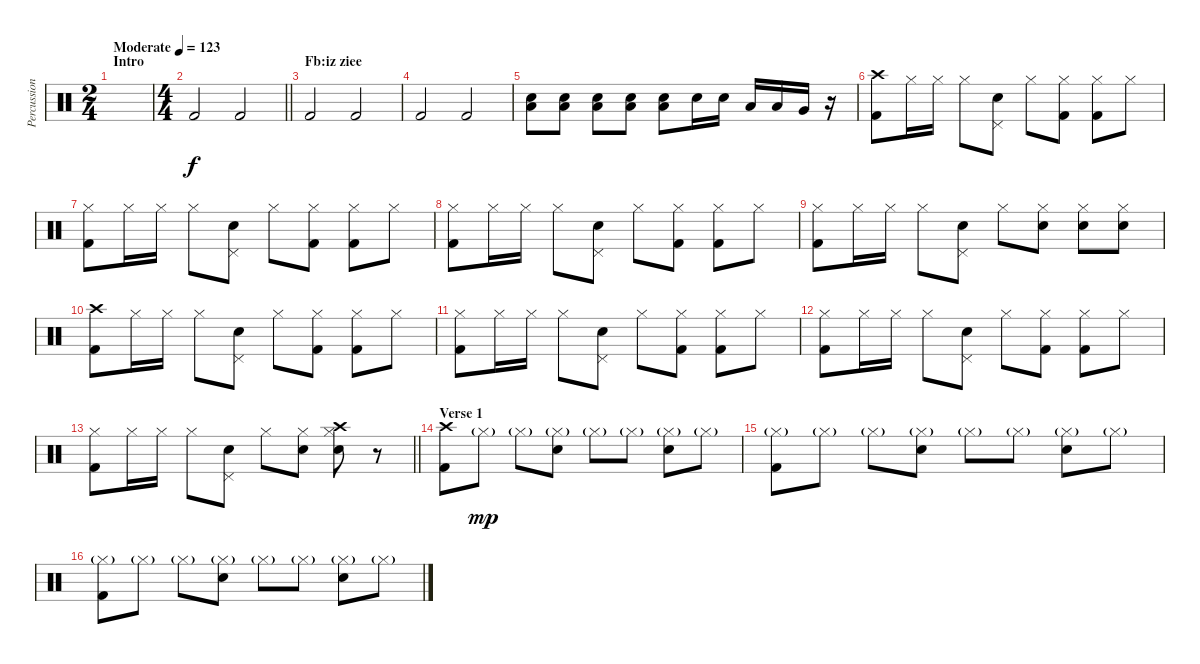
\track ("Percussion 1" "Percussion") {instrument percussion}
\staff {score}
\articulation defaults
\ts (2 4)
\section ("" "Intro")
\tempo (123 "Moderate")
\clef neutral
\ks c
|
\ts (4 4)
\barLineRight lightlight "Kick (hit) 2".2 "Kick (hit) 2".2
|
\section ("" "Fb:iz ziee")
"Kick (hit) 2".2 "Kick (hit) 2".2 |
"Kick (hit) 2".2 "Kick (hit) 2".2 |
("Low Tom (hit)" "Electric Snare (hit)").8{volume 9} ("Low Tom (hit)" "Electric Snare (hit)").8{volume 15} ("Low Tom (hit)" "Electric Snare (hit)").8 ("Low Tom (hit)" "Electric Snare (hit)").8 ("Low Tom (hit)" "Electric Snare (hit)").8 "Electric Snare (hit)".16 "Electric Snare (hit)".16 "Low Tom (hit)".16 "Low Tom (hit)".16 "Very Low Tom (hit)".16 r.16 |
("Crash high (hit)" "Kick (hit) 2").8{volume 13} "Hi-Hat (closed)".16 "Hi-Hat (closed)".16 "Hi-Hat (closed)".8 ("Pedal Hi-Hat (hit)" "Electric Snare (hit)").8 "Hi-Hat (closed)".8 ("Hi-Hat (closed)" "Kick (hit) 2").8 ("Hi-Hat (closed)" "Kick (hit) 2").8 "Hi-Hat (closed)".8 |
("Hi-Hat (closed)" "Kick (hit) 2").8 "Hi-Hat (closed)".16 "Hi-Hat (closed)".16 "Hi-Hat (closed)".8 ("Pedal Hi-Hat (hit)" "Electric Snare (hit)").8 "Hi-Hat (closed)".8 ("Hi-Hat (closed)" "Kick (hit) 2").8 ("Hi-Hat (closed)" "Kick (hit) 2").8 "Hi-Hat (closed)".8 |
("Hi-Hat (closed)" "Kick (hit) 2").8 "Hi-Hat (closed)".16 "Hi-Hat (closed)".16 "Hi-Hat (closed)".8 ("Pedal Hi-Hat (hit)" "Electric Snare (hit)").8 "Hi-Hat (closed)".8 ("Hi-Hat (closed)" "Kick (hit) 2").8 ("Hi-Hat (closed)" "Kick (hit) 2").8 "Hi-Hat (closed)".8 |
("Hi-Hat (closed)" "Kick (hit) 2").8 "Hi-Hat (closed)".16 "Hi-Hat (closed)".16 "Hi-Hat (closed)".8 ("Pedal Hi-Hat (hit)" "Electric Snare (hit)").8 "Hi-Hat (closed)".8 ("Hi-Hat (closed)" "Electric Snare (hit)").8 ("Hi-Hat (closed)" "Electric Snare (hit)").8 ("Hi-Hat (closed)" "Electric Snare (hit)").8 |
("Crash high (hit)" "Kick (hit) 2").8 "Hi-Hat (closed)".16 "Hi-Hat (closed)".16 "Hi-Hat (closed)".8 ("Pedal Hi-Hat (hit)" "Electric Snare (hit)").8 "Hi-Hat (closed)".8 ("Hi-Hat (closed)" "Kick (hit) 2").8 ("Hi-Hat (closed)" "Kick (hit) 2").8 "Hi-Hat (closed)".8 |
("Hi-Hat (closed)" "Kick (hit) 2").8 "Hi-Hat (closed)".16 "Hi-Hat (closed)".16 "Hi-Hat (closed)".8 ("Pedal Hi-Hat (hit)" "Electric Snare (hit)").8 "Hi-Hat (closed)".8 ("Hi-Hat (closed)" "Kick (hit) 2").8 ("Hi-Hat (closed)" "Kick (hit) 2").8 "Hi-Hat (closed)".8 |
("Hi-Hat (closed)" "Kick (hit) 2").8 "Hi-Hat (closed)".16 "Hi-Hat (closed)".16 "Hi-Hat (closed)".8 ("Pedal Hi-Hat (hit)" "Electric Snare (hit)").8 "Hi-Hat (closed)".8 ("Hi-Hat (closed)" "Kick (hit) 2").8 ("Hi-Hat (closed)" "Kick (hit) 2").8 "Hi-Hat (closed)".8 |
\barLineRight lightlight
("Hi-Hat (closed)" "Kick (hit) 2").8 "Hi-Hat (closed)".16 "Hi-Hat (closed)".16 "Hi-Hat (closed)".8 ("Pedal Hi-Hat (hit)" "Electric Snare (hit)").8 "Hi-Hat (closed)".8 ("Hi-Hat (closed)" "Electric Snare (hit)").8 ("Hi-Hat (closed)" "Electric Snare (hit)" "Crash high (hit)").8 r.8 |
\section ("" "Verse 1")
("Crash high (hit)" "Kick (hit) 2").8 "Hi-Hat (closed)"{g}.8{dy mp} "Hi-Hat (closed)"{g}.8 ("Hi-Hat (closed)"{g} "Electric Snare (hit)").8 "Hi-Hat (closed)"{g}.8 "Hi-Hat (closed)"{g}.8 ("Hi-Hat (closed)"{g} "Electric Snare (hit)").8 "Hi-Hat (closed)"{g}.8 |
("Hi-Hat (closed)"{g} "Kick (hit) 2").8 "Hi-Hat (closed)"{g}.8 "Hi-Hat (closed)"{g}.8 ("Hi-Hat (closed)"{g} "Electric Snare (hit)").8 "Hi-Hat (closed)"{g}.8 "Hi-Hat (closed)"{g}.8 ("Hi-Hat (closed)"{g} "Electric Snare (hit)").8 "Hi-Hat (closed)"{g}.8 |
("Hi-Hat (closed)"{g} "Kick (hit) 2").8 "Hi-Hat (closed)"{g}.8 "Hi-Hat (closed)"{g}.8 ("Hi-Hat (closed)"{g} "Electric Snare (hit)").8 "Hi-Hat (closed)"{g}.8 "Hi-Hat (closed)"{g}.8 ("Hi-Hat (closed)"{g} "Electric Snare (hit)").8 "Hi-Hat (closed)"{g}.8
